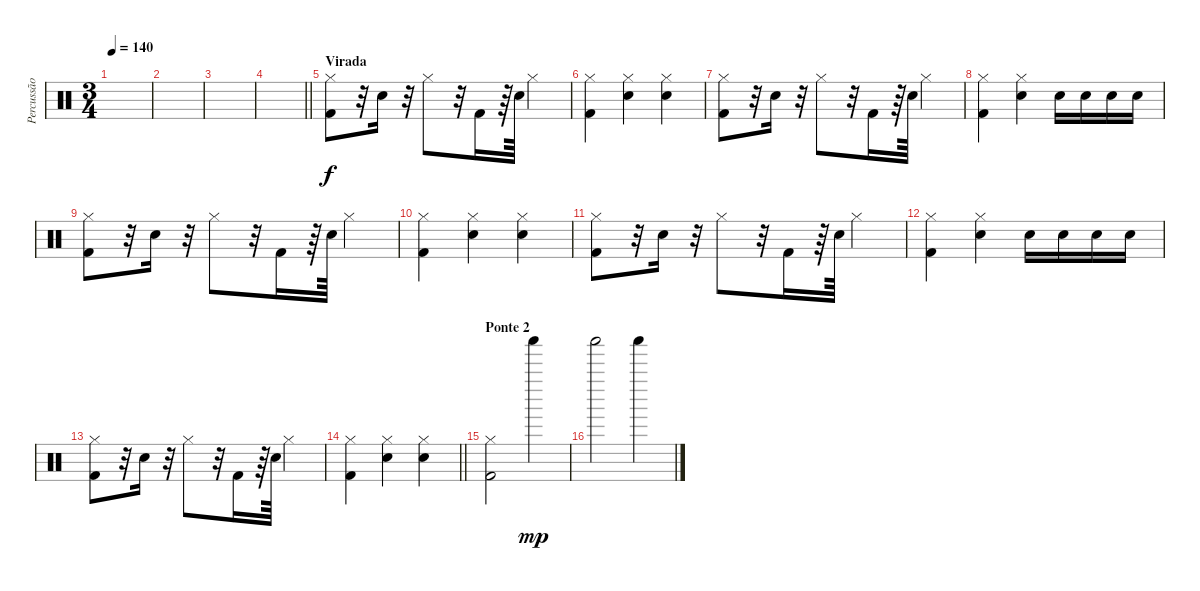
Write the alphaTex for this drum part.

\track ("Percussão" "Percussão") {instrument percussion}
\staff {score}
\articulation defaults
\ts (3 4)
\tempo 140
\clef neutral
\ks c
|
|
|
\barLineRight lightlight
|
\section ("" "Virada")
("Hi-Hat (closed)" "Kick (hit) 2").8 r.32 "Electric Snare (hit)".16 r.32 "Hi-Hat (closed)".8 r.32 "Kick (hit) 2".16 r.64 "Electric Snare (hit)".64 "Hi-Hat (closed)".4 |
("Hi-Hat (closed)" "Kick (hit) 2").4 ("Hi-Hat (closed)" "Electric Snare (hit)").4 ("Hi-Hat (closed)" "Electric Snare (hit)").4 |
("Hi-Hat (closed)" "Kick (hit) 2").8 r.32 "Electric Snare (hit)".16 r.32 "Hi-Hat (closed)".8 r.32 "Kick (hit) 2".16 r.64 "Electric Snare (hit)".64 "Hi-Hat (closed)".4 |
("Hi-Hat (closed)" "Kick (hit) 2").4 ("Hi-Hat (closed)" "Electric Snare (hit)").4 "Electric Snare (hit)".16 "Electric Snare (hit)".16 "Electric Snare (hit)".16 "Electric Snare (hit)".16 |
("Hi-Hat (closed)" "Kick (hit) 2").8 r.32 "Electric Snare (hit)".16 r.32 "Hi-Hat (closed)".8 r.32 "Kick (hit) 2".16 r.64 "Electric Snare (hit)".64 "Hi-Hat (closed)".4 |
("Hi-Hat (closed)" "Kick (hit) 2").4 ("Hi-Hat (closed)" "Electric Snare (hit)").4 ("Hi-Hat (closed)" "Electric Snare (hit)").4 |
("Hi-Hat (closed)" "Kick (hit) 2").8 r.32 "Electric Snare (hit)".16 r.32 "Hi-Hat (closed)".8 r.32 "Kick (hit) 2".16 r.64 "Electric Snare (hit)".64 "Hi-Hat (closed)".4 |
("Hi-Hat (closed)" "Kick (hit) 2").4 ("Hi-Hat (closed)" "Electric Snare (hit)").4 "Electric Snare (hit)".16 "Electric Snare (hit)".16 "Electric Snare (hit)".16 "Electric Snare (hit)".16 |
("Hi-Hat (closed)" "Kick (hit) 2").8 r.32 "Electric Snare (hit)".16 r.32 "Hi-Hat (closed)".8 r.32 "Kick (hit) 2".16 r.64 "Electric Snare (hit)".64 "Hi-Hat (closed)".4 |
\barLineRight lightlight
("Hi-Hat (closed)" "Kick (hit) 2").4 ("Hi-Hat (closed)" "Electric Snare (hit)").4 ("Hi-Hat (closed)" "Electric Snare (hit)").4 |
\section ("" "Ponte 2")
("Hi-Hat (closed)" "Kick (hit) 2").2 "Shaker (hit)".4{dy mp} |
"Shaker (hit)".2 "Shaker (hit)".4
